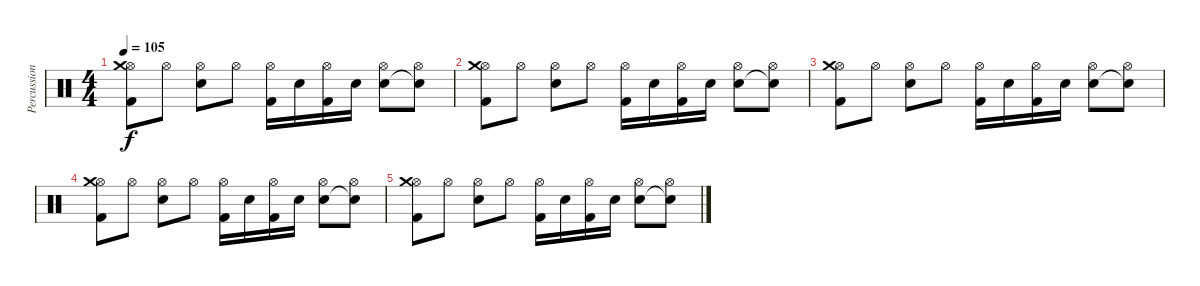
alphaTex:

\track ("Percussions" "Percussion") {instrument percussion}
\staff {score}
\articulation defaults
\ts (4 4)
\tempo 105
\clef neutral
\ks c
("Hi-Hat (open)" "Kick (hit) 2" "Crash medium (hit)").8{dy f} "Hi-Hat (open)".8 ("Hi-Hat (open)" "Electric Snare (hit)").8 "Hi-Hat (open)".8 ("Hi-Hat (open)" "Kick (hit) 2").16 "Electric Snare (hit)".16 ("Hi-Hat (open)" "Kick (hit) 2").16 "Electric Snare (hit)".16 ("Hi-Hat (open)" "Electric Snare (hit)").8 ("Hi-Hat (open)" "Snare (hit)"{t}).8 |
("Hi-Hat (open)" "Kick (hit) 2" "Crash medium (hit)").8 "Hi-Hat (open)".8 ("Hi-Hat (open)" "Electric Snare (hit)").8 "Hi-Hat (open)".8 ("Hi-Hat (open)" "Kick (hit) 2").16 "Electric Snare (hit)".16 ("Hi-Hat (open)" "Kick (hit) 2").16 "Electric Snare (hit)".16 ("Hi-Hat (open)" "Electric Snare (hit)").8 ("Hi-Hat (open)" "Snare (hit)"{t}).8 |
("Hi-Hat (open)" "Kick (hit) 2" "Crash medium (hit)").8 "Hi-Hat (open)".8 ("Hi-Hat (open)" "Electric Snare (hit)").8 "Hi-Hat (open)".8 ("Hi-Hat (open)" "Kick (hit) 2").16 "Electric Snare (hit)".16 ("Hi-Hat (open)" "Kick (hit) 2").16 "Electric Snare (hit)".16 ("Hi-Hat (open)" "Electric Snare (hit)").8 ("Hi-Hat (open)" "Snare (hit)"{t}).8 |
("Hi-Hat (open)" "Kick (hit) 2" "Crash medium (hit)").8 "Hi-Hat (open)".8 ("Hi-Hat (open)" "Electric Snare (hit)").8 "Hi-Hat (open)".8 ("Hi-Hat (open)" "Kick (hit) 2").16 "Electric Snare (hit)".16 ("Hi-Hat (open)" "Kick (hit) 2").16 "Electric Snare (hit)".16 ("Hi-Hat (open)" "Electric Snare (hit)").8 ("Hi-Hat (open)" "Snare (hit)"{t}).8 |
("Hi-Hat (open)" "Kick (hit) 2" "Crash medium (hit)").8 "Hi-Hat (open)".8 ("Hi-Hat (open)" "Electric Snare (hit)").8 "Hi-Hat (open)".8 ("Hi-Hat (open)" "Kick (hit) 2").16 "Electric Snare (hit)".16 ("Hi-Hat (open)" "Kick (hit) 2").16 "Electric Snare (hit)".16 ("Hi-Hat (open)" "Electric Snare (hit)").8 ("Hi-Hat (open)" "Snare (hit)"{t}).8
